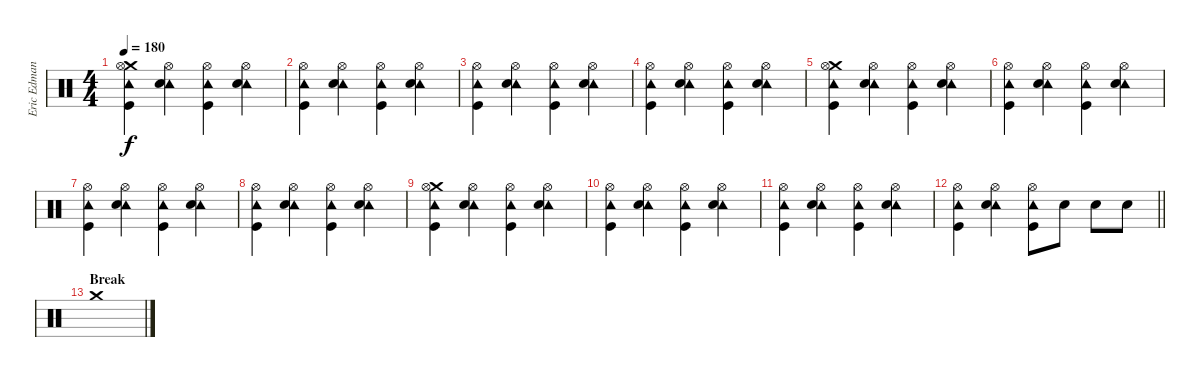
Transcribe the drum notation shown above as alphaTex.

\track ("Eric Edman - Drums" "Eric Edman") {instrument percussion}
\staff {score}
\articulation defaults
\ts (4 4)
\tempo 180
\clef neutral
\ks c
("Crash medium (hit)" "Tambourine (hit)" "Kick (hit)" "Hi-Hat (open)").4{dy f} ("Tambourine (hit)" "Snare (hit) 2" "Hi-Hat (open)").4 ("Tambourine (hit)" "Kick (hit)" "Hi-Hat (open)").4 ("Tambourine (hit)" "Snare (hit) 2" "Hi-Hat (open)").4 |
("Tambourine (hit)" "Kick (hit)" "Hi-Hat (open)").4 ("Tambourine (hit)" "Snare (hit) 2" "Hi-Hat (open)").4 ("Tambourine (hit)" "Kick (hit)" "Hi-Hat (open)").4 ("Tambourine (hit)" "Snare (hit) 2" "Hi-Hat (open)").4 |
("Tambourine (hit)" "Kick (hit)" "Hi-Hat (open)").4 ("Tambourine (hit)" "Snare (hit) 2" "Hi-Hat (open)").4 ("Tambourine (hit)" "Kick (hit)" "Hi-Hat (open)").4 ("Tambourine (hit)" "Snare (hit) 2" "Hi-Hat (open)").4 |
("Tambourine (hit)" "Kick (hit)" "Hi-Hat (open)").4 ("Tambourine (hit)" "Snare (hit) 2" "Hi-Hat (open)").4 ("Tambourine (hit)" "Kick (hit)" "Hi-Hat (open)").4 ("Tambourine (hit)" "Snare (hit) 2" "Hi-Hat (open)").4 |
("Crash medium (hit)" "Tambourine (hit)" "Kick (hit)" "Hi-Hat (open)").4 ("Tambourine (hit)" "Snare (hit) 2" "Hi-Hat (open)").4 ("Tambourine (hit)" "Kick (hit)" "Hi-Hat (open)").4 ("Tambourine (hit)" "Snare (hit) 2" "Hi-Hat (open)").4 |
("Tambourine (hit)" "Kick (hit)" "Hi-Hat (open)").4 ("Tambourine (hit)" "Snare (hit) 2" "Hi-Hat (open)").4 ("Tambourine (hit)" "Kick (hit)" "Hi-Hat (open)").4 ("Tambourine (hit)" "Snare (hit) 2" "Hi-Hat (open)").4 |
("Tambourine (hit)" "Kick (hit)" "Hi-Hat (open)").4 ("Tambourine (hit)" "Snare (hit) 2" "Hi-Hat (open)").4 ("Tambourine (hit)" "Kick (hit)" "Hi-Hat (open)").4 ("Tambourine (hit)" "Snare (hit) 2" "Hi-Hat (open)").4 |
("Tambourine (hit)" "Kick (hit)" "Hi-Hat (open)").4 ("Tambourine (hit)" "Snare (hit) 2" "Hi-Hat (open)").4 ("Tambourine (hit)" "Kick (hit)" "Hi-Hat (open)").4 ("Tambourine (hit)" "Snare (hit) 2" "Hi-Hat (open)").4 |
("Crash medium (hit)" "Tambourine (hit)" "Kick (hit)" "Hi-Hat (open)").4 ("Tambourine (hit)" "Snare (hit) 2" "Hi-Hat (open)").4 ("Tambourine (hit)" "Kick (hit)" "Hi-Hat (open)").4 ("Tambourine (hit)" "Snare (hit) 2" "Hi-Hat (open)").4 |
("Tambourine (hit)" "Kick (hit)" "Hi-Hat (open)").4 ("Tambourine (hit)" "Snare (hit) 2" "Hi-Hat (open)").4 ("Tambourine (hit)" "Kick (hit)" "Hi-Hat (open)").4 ("Tambourine (hit)" "Snare (hit) 2" "Hi-Hat (open)").4 |
("Tambourine (hit)" "Kick (hit)" "Hi-Hat (open)").4 ("Tambourine (hit)" "Snare (hit) 2" "Hi-Hat (open)").4 ("Tambourine (hit)" "Kick (hit)" "Hi-Hat (open)").4 ("Tambourine (hit)" "Snare (hit) 2" "Hi-Hat (open)").4 |
\barLineRight lightlight
("Tambourine (hit)" "Kick (hit)" "Hi-Hat (open)").4 ("Tambourine (hit)" "Snare (hit) 2" "Hi-Hat (open)").4 ("Tambourine (hit)" "Kick (hit)" "Hi-Hat (open)").8 "Snare (hit) 2".8 "Snare (hit) 2".8 "Snare (hit) 2".8 |
\section ("" "Break")
"Crash medium (hit)".1
